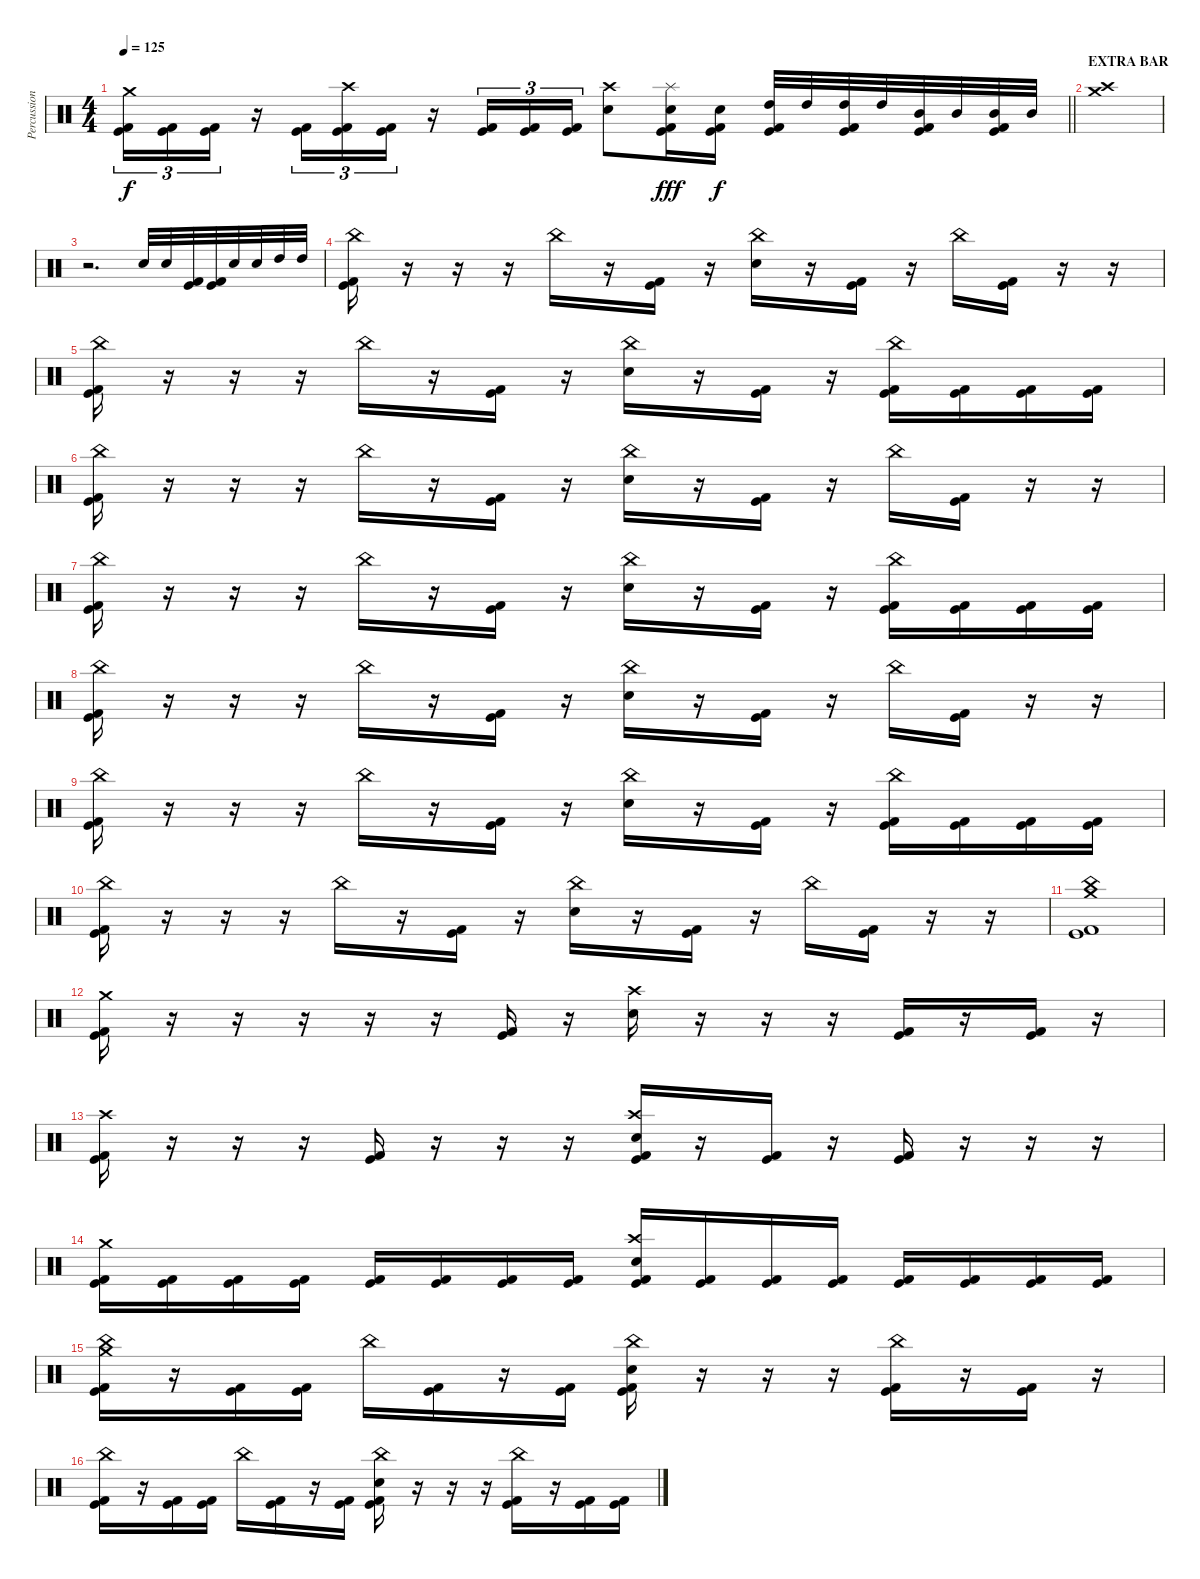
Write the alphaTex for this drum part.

\track ("Percussion" "Percussion") {instrument percussion}
\staff {score}
\articulation defaults
\ts (4 4)
\tempo 125
\clef neutral
\barLineRight lightlight
\ks c
("Crash medium (hit)" "Kick (hit)" "Kick (hit) 2").16{tu (3 2) dy f} ("Kick (hit)" "Kick (hit) 2").16{tu (3 2)} ("Kick (hit)" "Kick (hit) 2").16{tu (3 2)} r.16 ("Kick (hit)" "Kick (hit) 2").16{tu (3 2)} ("Crash high (hit)" "Kick (hit)" "Kick (hit) 2").16{tu (3 2)} ("Kick (hit)" "Kick (hit) 2").16{tu (3 2)} r.16 ("Kick (hit)" "Kick (hit) 2").16{tu (3 2)} ("Kick (hit)" "Kick (hit) 2").16{tu (3 2)} ("Kick (hit)" "Kick (hit) 2").16{tu (3 2)} ("Crash high (hit)" "Snare (hit) 2").8 ("Splash (hit)" "Snare (hit) 2" "Kick (hit)" "Kick (hit) 2").16{dy fff} ("Snare (hit) 2" "Kick (hit)" "Kick (hit) 2").16{dy f} ("High Tom (hit)" "Kick (hit)" "Kick (hit) 2").32 "High Tom (hit)".32 ("High Tom (hit)" "Kick (hit)" "Kick (hit) 2").32 "High Tom (hit)".32 ("Mid Tom (hit)" "Kick (hit)" "Kick (hit) 2").32 "Mid Tom (hit)".32 ("Mid Tom (hit)" "Kick (hit)" "Kick (hit) 2").32 "Mid Tom (hit)".32 |
\section ("" "EXTRA BAR")
("Crash medium (hit)" "Crash high (hit)").1 |
r.2{d} "Electric Snare (hit)".32 "Electric Snare (hit)".32 ("Kick (hit)" "Kick (hit) 2").32 ("Kick (hit)" "Kick (hit) 2").32 "Electric Snare (hit)".32 "Electric Snare (hit)".32 "High Tom (hit)".32 "High Tom (hit)".32 |
("China (hit)" "Kick (hit) 2" "Kick (hit)").16 r.16 r.16 r.16 "China (hit)".16 r.16 ("Kick (hit) 2" "Kick (hit)").16 r.16 ("China (hit)" "Snare (hit) 2").16 r.16 ("Kick (hit) 2" "Kick (hit)").16 r.16 "China (hit)".16 ("Kick (hit)" "Kick (hit) 2").16 r.16 r.16 |
("China (hit)" "Kick (hit) 2" "Kick (hit)").16 r.16 r.16 r.16 "China (hit)".16 r.16 ("Kick (hit) 2" "Kick (hit)").16 r.16 ("China (hit)" "Snare (hit) 2").16 r.16 ("Kick (hit) 2" "Kick (hit)").16 r.16 ("China (hit)" "Kick (hit)" "Kick (hit) 2").16 ("Kick (hit)" "Kick (hit) 2").16 ("Kick (hit)" "Kick (hit) 2").16 ("Kick (hit)" "Kick (hit) 2").16 |
("China (hit)" "Kick (hit) 2" "Kick (hit)").16 r.16 r.16 r.16 "China (hit)".16 r.16 ("Kick (hit) 2" "Kick (hit)").16 r.16 ("China (hit)" "Snare (hit) 2").16 r.16 ("Kick (hit) 2" "Kick (hit)").16 r.16 "China (hit)".16 ("Kick (hit)" "Kick (hit) 2").16 r.16 r.16 |
("China (hit)" "Kick (hit) 2" "Kick (hit)").16 r.16 r.16 r.16 "China (hit)".16 r.16 ("Kick (hit) 2" "Kick (hit)").16 r.16 ("China (hit)" "Snare (hit) 2").16 r.16 ("Kick (hit) 2" "Kick (hit)").16 r.16 ("China (hit)" "Kick (hit)" "Kick (hit) 2").16 ("Kick (hit)" "Kick (hit) 2").16 ("Kick (hit)" "Kick (hit) 2").16 ("Kick (hit)" "Kick (hit) 2").16 |
("China (hit)" "Kick (hit) 2" "Kick (hit)").16 r.16 r.16 r.16 "China (hit)".16 r.16 ("Kick (hit) 2" "Kick (hit)").16 r.16 ("China (hit)" "Snare (hit) 2").16 r.16 ("Kick (hit) 2" "Kick (hit)").16 r.16 "China (hit)".16 ("Kick (hit)" "Kick (hit) 2").16 r.16 r.16 |
("China (hit)" "Kick (hit) 2" "Kick (hit)").16 r.16 r.16 r.16 "China (hit)".16 r.16 ("Kick (hit) 2" "Kick (hit)").16 r.16 ("China (hit)" "Snare (hit) 2").16 r.16 ("Kick (hit) 2" "Kick (hit)").16 r.16 ("China (hit)" "Kick (hit)" "Kick (hit) 2").16 ("Kick (hit)" "Kick (hit) 2").16 ("Kick (hit)" "Kick (hit) 2").16 ("Kick (hit)" "Kick (hit) 2").16 |
("China (hit)" "Kick (hit) 2" "Kick (hit)").16 r.16 r.16 r.16 "China (hit)".16 r.16 ("Kick (hit) 2" "Kick (hit)").16 r.16 ("China (hit)" "Snare (hit) 2").16 r.16 ("Kick (hit) 2" "Kick (hit)").16 r.16 "China (hit)".16 ("Kick (hit)" "Kick (hit) 2").16 r.16 r.16 |
("China (hit)" "Crash medium (hit)" "Kick (hit) 2" "Kick (hit)").1 |
("Crash medium (hit)" "Kick (hit) 2" "Kick (hit)").16 r.16 r.16 r.16 r.16 r.16 ("Kick (hit) 2" "Kick (hit)").16 r.16 ("Crash high (hit)" "Snare (hit) 2").16 r.16 r.16 r.16 ("Kick (hit) 2" "Kick (hit)").16 r.16 ("Kick (hit)" "Kick (hit) 2").16 r.16 |
("Crash high (hit)" "Kick (hit)" "Kick (hit) 2").16 r.16 r.16 r.16 ("Kick (hit)" "Kick (hit) 2").16 r.16 r.16 r.16 ("Crash high (hit)" "Snare (hit) 2" "Kick (hit)" "Kick (hit) 2").16 r.16 ("Kick (hit)" "Kick (hit) 2").16 r.16 ("Kick (hit)" "Kick (hit) 2").16 r.16 r.16 r.16 |
("Crash medium (hit)" "Kick (hit) 2" "Kick (hit)").16 ("Kick (hit) 2" "Kick (hit)").16 ("Kick (hit) 2" "Kick (hit)").16 ("Kick (hit) 2" "Kick (hit)").16 ("Kick (hit) 2" "Kick (hit)").16 ("Kick (hit) 2" "Kick (hit)").16 ("Kick (hit) 2" "Kick (hit)").16 ("Kick (hit) 2" "Kick (hit)").16 ("Crash high (hit)" "Snare (hit) 2" "Kick (hit) 2" "Kick (hit)").16 ("Kick (hit) 2" "Kick (hit)").16 ("Kick (hit) 2" "Kick (hit)").16 ("Kick (hit) 2" "Kick (hit)").16 ("Kick (hit) 2" "Kick (hit)").16 ("Kick (hit) 2" "Kick (hit)").16 ("Kick (hit) 2" "Kick (hit)").16 ("Kick (hit) 2" "Kick (hit)").16 |
("China (hit)" "Crash medium (hit)" "Kick (hit) 2" "Kick (hit)").16 r.16 ("Kick (hit) 2" "Kick (hit)").16 ("Kick (hit) 2" "Kick (hit)").16 "China (hit)".16 ("Kick (hit) 2" "Kick (hit)").16 r.16 ("Kick (hit) 2" "Kick (hit)").16 ("China (hit)" "Snare (hit) 2" "Kick (hit) 2" "Kick (hit)").16 r.16 r.16 r.16 ("China (hit)" "Kick (hit)" "Kick (hit) 2").16 r.16 ("Kick (hit)" "Kick (hit) 2").16 r.16 |
("China (hit)" "Kick (hit) 2" "Kick (hit)").16 r.16 ("Kick (hit) 2" "Kick (hit)").16 ("Kick (hit) 2" "Kick (hit)").16 "China (hit)".16 ("Kick (hit) 2" "Kick (hit)").16 r.16 ("Kick (hit) 2" "Kick (hit)").16 ("China (hit)" "Snare (hit) 2" "Kick (hit) 2" "Kick (hit)").16 r.16 r.16 r.16 ("China (hit)" "Kick (hit)" "Kick (hit) 2").16 r.16 ("Kick (hit)" "Kick (hit) 2").16 ("Kick (hit)" "Kick (hit) 2").16
